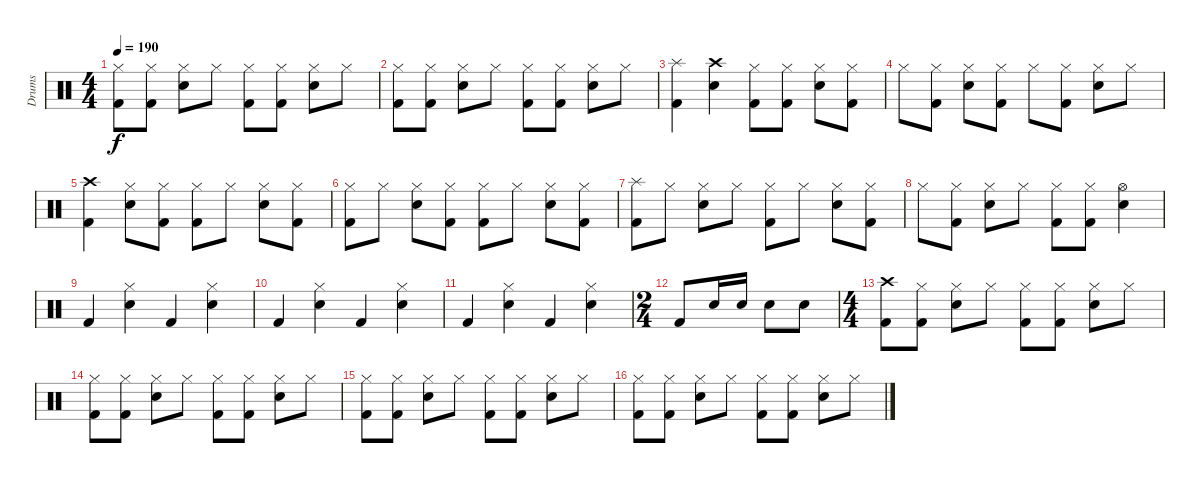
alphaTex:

\track ("Drums" "Drums") {instrument percussion}
\staff {score}
\articulation defaults
\ts (4 4)
\tempo 190
\clef neutral
\ks c
("Kick (hit) 2" "Hi-Hat (closed)").8{dy f} ("Kick (hit) 2" "Hi-Hat (closed)").8 ("Snare (hit) 2" "Hi-Hat (closed)").8 "Hi-Hat (closed)".8 ("Kick (hit) 2" "Hi-Hat (closed)").8 ("Kick (hit) 2" "Hi-Hat (closed)").8 ("Snare (hit) 2" "Hi-Hat (closed)").8 "Hi-Hat (closed)".8 |
("Kick (hit) 2" "Hi-Hat (closed)").8 ("Kick (hit) 2" "Hi-Hat (closed)").8 ("Snare (hit) 2" "Hi-Hat (closed)").8 "Hi-Hat (closed)".8 ("Kick (hit) 2" "Hi-Hat (closed)").8 ("Kick (hit) 2" "Hi-Hat (closed)").8 ("Snare (hit) 2" "Hi-Hat (closed)").8 "Hi-Hat (closed)".8 |
("Kick (hit) 2" "Splash (hit)").4 ("Snare (hit) 2" "Crash high (hit)").4 ("Kick (hit) 2" "Hi-Hat (closed)").8 ("Kick (hit) 2" "Hi-Hat (closed)").8 ("Snare (hit) 2" "Hi-Hat (closed)").8 ("Kick (hit) 2" "Hi-Hat (closed)").8 |
"Hi-Hat (closed)".8 ("Kick (hit) 2" "Hi-Hat (closed)").8 ("Snare (hit) 2" "Hi-Hat (closed)").8 ("Kick (hit) 2" "Hi-Hat (closed)").8 "Hi-Hat (closed)".8 ("Kick (hit) 2" "Hi-Hat (closed)").8 ("Snare (hit) 2" "Hi-Hat (closed)").8 "Hi-Hat (closed)".8 |
("Kick (hit) 2" "Crash high (hit)").4 ("Snare (hit) 2" "Hi-Hat (closed)").8 ("Kick (hit) 2" "Hi-Hat (closed)").8 ("Kick (hit) 2" "Hi-Hat (closed)").8 "Hi-Hat (closed)".8 ("Snare (hit) 2" "Hi-Hat (closed)").8 ("Kick (hit) 2" "Hi-Hat (closed)").8 |
("Kick (hit) 2" "Hi-Hat (closed)").8 "Hi-Hat (closed)".8 ("Snare (hit) 2" "Hi-Hat (closed)").8 ("Kick (hit) 2" "Hi-Hat (closed)").8 ("Kick (hit) 2" "Hi-Hat (closed)").8 "Hi-Hat (closed)".8 ("Snare (hit) 2" "Hi-Hat (closed)").8 ("Kick (hit) 2" "Hi-Hat (closed)").8 |
("Kick (hit) 2" "Splash (hit)").8 "Hi-Hat (closed)".8 ("Snare (hit) 2" "Hi-Hat (closed)").8 "Hi-Hat (closed)".8 ("Kick (hit) 2" "Hi-Hat (closed)").8 "Hi-Hat (closed)".8 ("Snare (hit) 2" "Hi-Hat (closed)").8 ("Kick (hit) 2" "Hi-Hat (closed)").8 |
"Hi-Hat (closed)".8 ("Kick (hit) 2" "Hi-Hat (closed)").8 ("Snare (hit) 2" "Hi-Hat (closed)").8 "Hi-Hat (closed)".8 ("Kick (hit) 2" "Hi-Hat (closed)").8 ("Kick (hit) 2" "Hi-Hat (closed)").8 ("Snare (hit) 2" "Hi-Hat (open)").4 |
"Kick (hit) 2".4 ("Snare (hit) 2" "Hi-Hat (closed)").4 "Kick (hit) 2".4 ("Snare (hit) 2" "Hi-Hat (closed)").4 |
"Kick (hit) 2".4 ("Snare (hit) 2" "Hi-Hat (closed)").4 "Kick (hit) 2".4 ("Snare (hit) 2" "Hi-Hat (closed)").4 |
"Kick (hit) 2".4 ("Snare (hit) 2" "Hi-Hat (closed)").4 "Kick (hit) 2".4 ("Snare (hit) 2" "Hi-Hat (closed)").4 |
\ts (2 4)
"Kick (hit) 2".8 "Snare (hit) 2".16 "Snare (hit) 2".16 "Snare (hit) 2".8 "Snare (hit) 2".8 |
\ts (4 4)
("Kick (hit) 2" "Crash high (hit)").8 ("Kick (hit) 2" "Hi-Hat (closed)").8 ("Snare (hit) 2" "Hi-Hat (closed)").8 "Hi-Hat (closed)".8 ("Kick (hit) 2" "Hi-Hat (closed)").8 ("Kick (hit) 2" "Hi-Hat (closed)").8 ("Snare (hit) 2" "Hi-Hat (closed)").8 "Hi-Hat (closed)".8 |
("Kick (hit) 2" "Hi-Hat (closed)").8 ("Kick (hit) 2" "Hi-Hat (closed)").8 ("Snare (hit) 2" "Hi-Hat (closed)").8 "Hi-Hat (closed)".8 ("Kick (hit) 2" "Hi-Hat (closed)").8 ("Kick (hit) 2" "Hi-Hat (closed)").8 ("Snare (hit) 2" "Hi-Hat (closed)").8 "Hi-Hat (closed)".8 |
("Kick (hit) 2" "Hi-Hat (closed)").8 ("Kick (hit) 2" "Hi-Hat (closed)").8 ("Snare (hit) 2" "Hi-Hat (closed)").8 "Hi-Hat (closed)".8 ("Kick (hit) 2" "Hi-Hat (closed)").8 ("Kick (hit) 2" "Hi-Hat (closed)").8 ("Snare (hit) 2" "Hi-Hat (closed)").8 "Hi-Hat (closed)".8 |
("Kick (hit) 2" "Hi-Hat (closed)").8 ("Kick (hit) 2" "Hi-Hat (closed)").8 ("Snare (hit) 2" "Hi-Hat (closed)").8 "Hi-Hat (closed)".8 ("Kick (hit) 2" "Hi-Hat (closed)").8 ("Kick (hit) 2" "Hi-Hat (closed)").8 ("Snare (hit) 2" "Hi-Hat (closed)").8 "Hi-Hat (closed)".8
